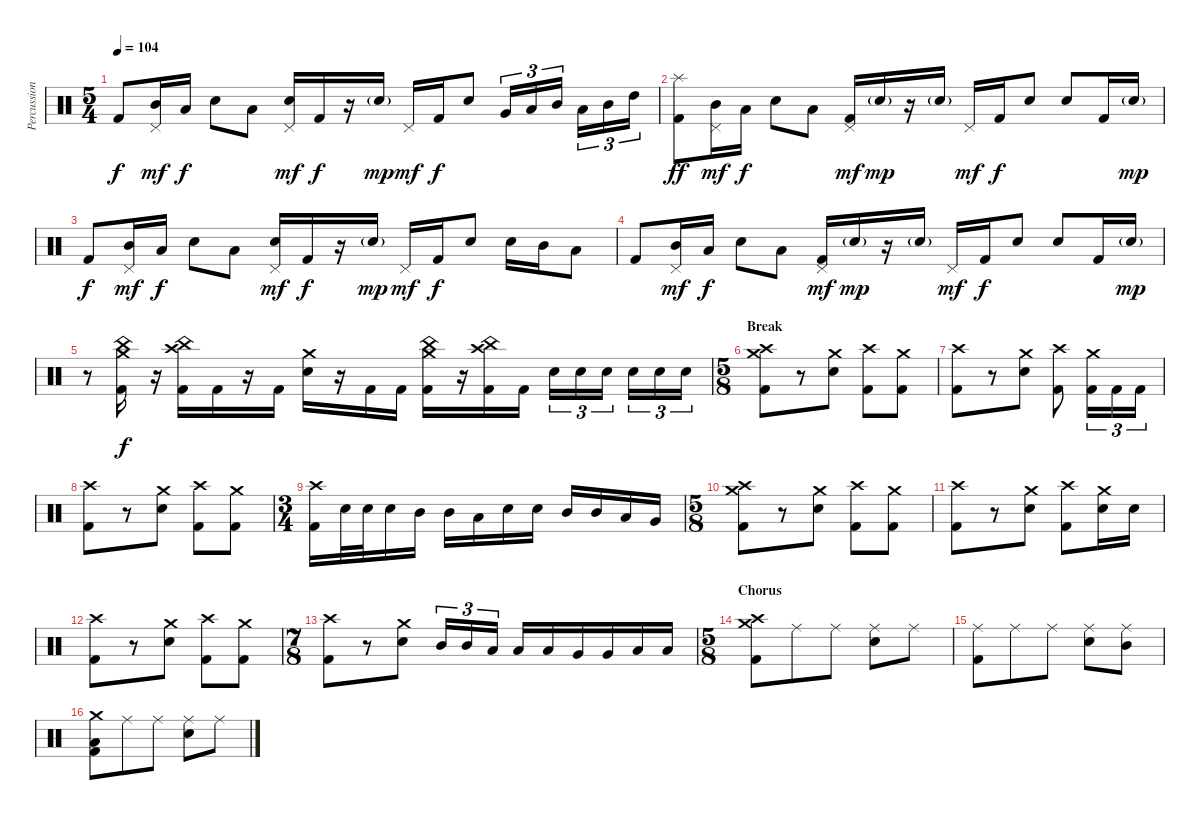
\track ("Percussions" "Percussion") {instrument percussion}
\staff {score}
\articulation defaults
\ts (5 4)
\tempo 104
\clef neutral
\ks c "Kick (hit) 2".8{dy f}
("Pedal Hi-Hat (hit)" "Mid Tom (hit)").16{dy mf} "Low Tom (hit)".16{dy f} "Electric Snare (hit)".8 "Low Tom (hit)".8 ("Pedal Hi-Hat (hit)" "Electric Snare (hit)").16{dy mf} "Kick (hit) 2".16{dy f} r.16 "Electric Snare (hit)"{g}.16{dy mp} "Pedal Hi-Hat (hit)".16{dy mf} "Kick (hit) 2".16{dy f} "Electric Snare (hit)".8 "Very Low Tom (hit)".16{tu (3 2)} "Low Tom (hit)".16{tu (3 2)} "Mid Tom (hit)".16{tu (3 2)} "Low Tom (hit)".16{tu (3 2)} "Mid Tom (hit)".16{tu (3 2)} "High Tom (hit)".16{tu (3 2)} |
("Splash (hit)" "Kick (hit) 2").8{dy ff} ("Pedal Hi-Hat (hit)" "Mid Tom (hit)").16{dy mf} "Low Tom (hit)".16{dy f} "Electric Snare (hit)".8 "Low Tom (hit)".8 ("Pedal Hi-Hat (hit)" "Kick (hit) 2").16{dy mf} "Electric Snare (hit)"{g}.16{dy mp} r.16 "Electric Snare (hit)"{g}.16 "Pedal Hi-Hat (hit)".16{dy mf} "Kick (hit) 2".16{dy f} "Electric Snare (hit)".8 "Electric Snare (hit)".8 "Kick (hit) 2".16 "Electric Snare (hit)"{g}.16{dy mp} |
"Kick (hit) 2".8{dy f} ("Pedal Hi-Hat (hit)" "Mid Tom (hit)").16{dy mf} "Low Tom (hit)".16{dy f} "Electric Snare (hit)".8 "Low Tom (hit)".8 ("Pedal Hi-Hat (hit)" "Electric Snare (hit)").16{dy mf} "Kick (hit) 2".16{dy f} r.16 "Electric Snare (hit)"{g}.16{dy mp} "Pedal Hi-Hat (hit)".16{dy mf} "Kick (hit) 2".16{dy f} "Electric Snare (hit)".8 "Electric Snare (hit)".16 "Mid Tom (hit)".16 "Low Tom (hit)".8 |
"Kick (hit) 2".8 ("Pedal Hi-Hat (hit)" "Mid Tom (hit)").16{dy mf} "Low Tom (hit)".16{dy f} "Electric Snare (hit)".8 "Low Tom (hit)".8 ("Pedal Hi-Hat (hit)" "Kick (hit) 2").16{dy mf} "Electric Snare (hit)"{g}.16{dy mp} r.16 "Electric Snare (hit)"{g}.16 "Pedal Hi-Hat (hit)".16{dy mf} "Kick (hit) 2".16{dy f} "Electric Snare (hit)".8 "Electric Snare (hit)".8 "Kick (hit) 2".16 "Electric Snare (hit)"{g}.16{dy mp} |
r.8 ("Crash medium (hit)" "China (hit)" "Kick (hit) 2").16{dy f} r.16 ("Crash high (hit)" "China (hit)" "Kick (hit) 2").16 "Kick (hit) 2".16 r.16 "Kick (hit) 2".16 ("Crash medium (hit)" "Electric Snare (hit)").16 r.16 "Kick (hit) 2".16 "Kick (hit) 2".16 ("Crash medium (hit)" "China (hit)" "Kick (hit) 2").16 r.16 ("Crash high (hit)" "China (hit)" "Kick (hit) 2").16 "Kick (hit) 2".16 "Electric Snare (hit)".16{tu (3 2)} "Electric Snare (hit)".16{tu (3 2)} "Electric Snare (hit)".16{tu (3 2)} "Electric Snare (hit)".16{tu (3 2)} "Electric Snare (hit)".16{tu (3 2)} "Electric Snare (hit)".16{tu (3 2)} |
\ts (5 8)
\section ("" "Break")
("Crash medium (hit)" "Crash high (hit)" "Kick (hit) 2").8 r.8 ("Crash medium (hit)" "Electric Snare (hit)").8 ("Crash high (hit)" "Kick (hit) 2").8 ("Crash medium (hit)" "Kick (hit) 2").8 |
("Crash high (hit)" "Kick (hit) 2").8 r.8 ("Crash medium (hit)" "Electric Snare (hit)").8 ("Crash high (hit)" "Kick (hit) 2").8 ("Crash medium (hit)" "Kick (hit) 2").16{tu (3 2)} "Kick (hit) 2".16{tu (3 2)} "Kick (hit) 2".16{tu (3 2)} |
("Crash high (hit)" "Kick (hit) 2").8 r.8 ("Crash medium (hit)" "Electric Snare (hit)").8 ("Crash high (hit)" "Kick (hit) 2").8 ("Crash medium (hit)" "Kick (hit) 2").8 |
\ts (3 4)
("Crash high (hit)" "Kick (hit) 2").16 "Electric Snare (hit)".32 "Electric Snare (hit)".32 "Electric Snare (hit)".16 "Mid Tom (hit)".16 "Mid Tom (hit)".16 "Low Tom (hit)".16 "Electric Snare (hit)".16 "Electric Snare (hit)".16 "Mid Tom (hit)".16 "Mid Tom (hit)".16 "Low Tom (hit)".16 "Very Low Tom (hit)".16 |
\ts (5 8)
("Crash medium (hit)" "Crash high (hit)" "Kick (hit) 2").8 r.8 ("Crash medium (hit)" "Electric Snare (hit)").8 ("Crash high (hit)" "Kick (hit) 2").8 ("Crash medium (hit)" "Kick (hit) 2").8 |
("Crash high (hit)" "Kick (hit) 2").8 r.8 ("Crash medium (hit)" "Electric Snare (hit)").8 ("Crash high (hit)" "Kick (hit) 2").8 ("Crash medium (hit)" "Electric Snare (hit)").16 "Electric Snare (hit)".16 |
("Crash high (hit)" "Kick (hit) 2").8 r.8 ("Crash medium (hit)" "Electric Snare (hit)").8 ("Crash high (hit)" "Kick (hit) 2").8 ("Crash medium (hit)" "Kick (hit) 2").8 |
\ts (7 8)
("Crash high (hit)" "Kick (hit) 2").8 r.8 ("Crash medium (hit)" "Electric Snare (hit)").8 "Mid Tom (hit)".16{tu (3 2)} "Mid Tom (hit)".16{tu (3 2)} "Low Tom (hit)".16{tu (3 2)} "Low Tom (hit)".16 "Low Tom (hit)".16 "Very Low Tom (hit)".16 "Very Low Tom (hit)".16 "Low Floor Tom (hit)".16 "Low Floor Tom (hit)".16 |
\ts (5 8)
\section ("" "Chorus")
("Crash high (hit)" "Crash medium (hit)" "Kick (hit) 2").8 "Ride (middle)".8 "Ride (middle)".8 ("Ride (middle)" "Electric Snare (hit)").8 "Ride (middle)".8 |
("Ride (middle)" "Kick (hit) 2").8 "Ride (middle)".8 "Ride (middle)".8 ("Ride (middle)" "Electric Snare (hit)").8 ("Ride (middle)" "Mid Tom (hit)").8 |
("Crash medium (hit)" "Low Tom (hit)" "Kick (hit) 2").8 "Ride (middle)".8 "Ride (middle)".8 ("Ride (middle)" "Electric Snare (hit)").8 "Ride (middle)".8
